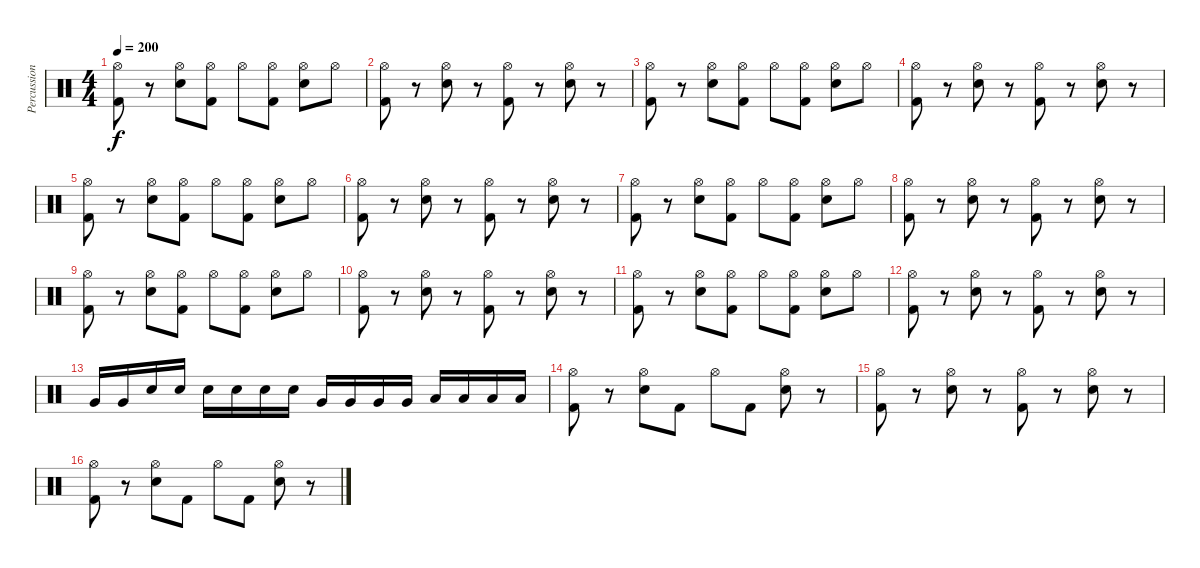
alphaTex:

\track ("Percussion" "Percussion") {instrument percussion}
\staff {score}
\articulation defaults
\ts (4 4)
\tempo 200
\clef neutral
\ks c
("Hi-Hat (open)" "Kick (hit) 2").8{dy f} r.8 ("Hi-Hat (open)" "Electric Snare (hit)").8 ("Hi-Hat (open)" "Kick (hit) 2").8 "Hi-Hat (open)".8 ("Hi-Hat (open)" "Kick (hit) 2").8 ("Hi-Hat (open)" "Electric Snare (hit)").8 "Hi-Hat (open)".8 |
("Hi-Hat (open)" "Kick (hit) 2").8 r.8 ("Hi-Hat (open)" "Electric Snare (hit)").8 r.8 ("Hi-Hat (open)" "Kick (hit) 2").8 r.8 ("Hi-Hat (open)" "Electric Snare (hit)").8 r.8 |
("Hi-Hat (open)" "Kick (hit) 2").8 r.8 ("Hi-Hat (open)" "Electric Snare (hit)").8 ("Hi-Hat (open)" "Kick (hit) 2").8 "Hi-Hat (open)".8 ("Hi-Hat (open)" "Kick (hit) 2").8 ("Hi-Hat (open)" "Electric Snare (hit)").8 "Hi-Hat (open)".8 |
("Hi-Hat (open)" "Kick (hit) 2").8 r.8 ("Hi-Hat (open)" "Electric Snare (hit)").8 r.8 ("Hi-Hat (open)" "Kick (hit) 2").8 r.8 ("Hi-Hat (open)" "Electric Snare (hit)").8 r.8 |
("Hi-Hat (open)" "Kick (hit) 2").8 r.8 ("Hi-Hat (open)" "Electric Snare (hit)").8 ("Hi-Hat (open)" "Kick (hit) 2").8 "Hi-Hat (open)".8 ("Hi-Hat (open)" "Kick (hit) 2").8 ("Hi-Hat (open)" "Electric Snare (hit)").8 "Hi-Hat (open)".8 |
("Hi-Hat (open)" "Kick (hit) 2").8 r.8 ("Hi-Hat (open)" "Electric Snare (hit)").8 r.8 ("Hi-Hat (open)" "Kick (hit) 2").8 r.8 ("Hi-Hat (open)" "Electric Snare (hit)").8 r.8 |
("Hi-Hat (open)" "Kick (hit) 2").8 r.8 ("Hi-Hat (open)" "Electric Snare (hit)").8 ("Hi-Hat (open)" "Kick (hit) 2").8 "Hi-Hat (open)".8 ("Hi-Hat (open)" "Kick (hit) 2").8 ("Hi-Hat (open)" "Electric Snare (hit)").8 "Hi-Hat (open)".8 |
("Hi-Hat (open)" "Kick (hit) 2").8 r.8 ("Hi-Hat (open)" "Electric Snare (hit)").8 r.8 ("Hi-Hat (open)" "Kick (hit) 2").8 r.8 ("Hi-Hat (open)" "Electric Snare (hit)").8 r.8 |
("Hi-Hat (open)" "Kick (hit) 2").8 r.8 ("Hi-Hat (open)" "Electric Snare (hit)").8 ("Hi-Hat (open)" "Kick (hit) 2").8 "Hi-Hat (open)".8 ("Hi-Hat (open)" "Kick (hit) 2").8 ("Hi-Hat (open)" "Electric Snare (hit)").8 "Hi-Hat (open)".8 |
("Hi-Hat (open)" "Kick (hit) 2").8 r.8 ("Hi-Hat (open)" "Electric Snare (hit)").8 r.8 ("Hi-Hat (open)" "Kick (hit) 2").8 r.8 ("Hi-Hat (open)" "Electric Snare (hit)").8 r.8 |
("Hi-Hat (open)" "Kick (hit) 2").8 r.8 ("Hi-Hat (open)" "Electric Snare (hit)").8 ("Hi-Hat (open)" "Kick (hit) 2").8 "Hi-Hat (open)".8 ("Hi-Hat (open)" "Kick (hit) 2").8 ("Hi-Hat (open)" "Electric Snare (hit)").8 "Hi-Hat (open)".8 |
("Hi-Hat (open)" "Kick (hit) 2").8 r.8 ("Hi-Hat (open)" "Electric Snare (hit)").8 r.8 ("Hi-Hat (open)" "Kick (hit) 2").8 r.8 ("Hi-Hat (open)" "Electric Snare (hit)").8 r.8 |
"Very Low Tom (hit)".16 "Very Low Tom (hit)".16 "Electric Snare (hit)".16 "Electric Snare (hit)".16 "Electric Snare (hit)".16 "Electric Snare (hit)".16 "Electric Snare (hit)".16 "Electric Snare (hit)".16 "Very Low Tom (hit)".16 "Very Low Tom (hit)".16 "Very Low Tom (hit)".16 "Very Low Tom (hit)".16 "Low Floor Tom (hit)".16 "Low Floor Tom (hit)".16 "Low Floor Tom (hit)".16 "Low Floor Tom (hit)".16 |
("Hi-Hat (open)" "Kick (hit) 2").8 r.8 ("Hi-Hat (open)" "Electric Snare (hit)").8 "Kick (hit) 2".8 "Hi-Hat (open)".8 "Kick (hit) 2".8 ("Hi-Hat (open)" "Electric Snare (hit)").8 r.8 |
("Hi-Hat (open)" "Kick (hit) 2").8 r.8 ("Hi-Hat (open)" "Electric Snare (hit)").8 r.8 ("Hi-Hat (open)" "Kick (hit) 2").8 r.8 ("Hi-Hat (open)" "Electric Snare (hit)").8 r.8 |
("Hi-Hat (open)" "Kick (hit) 2").8 r.8 ("Hi-Hat (open)" "Electric Snare (hit)").8 "Kick (hit) 2".8 "Hi-Hat (open)".8 "Kick (hit) 2".8 ("Hi-Hat (open)" "Electric Snare (hit)").8 r.8
